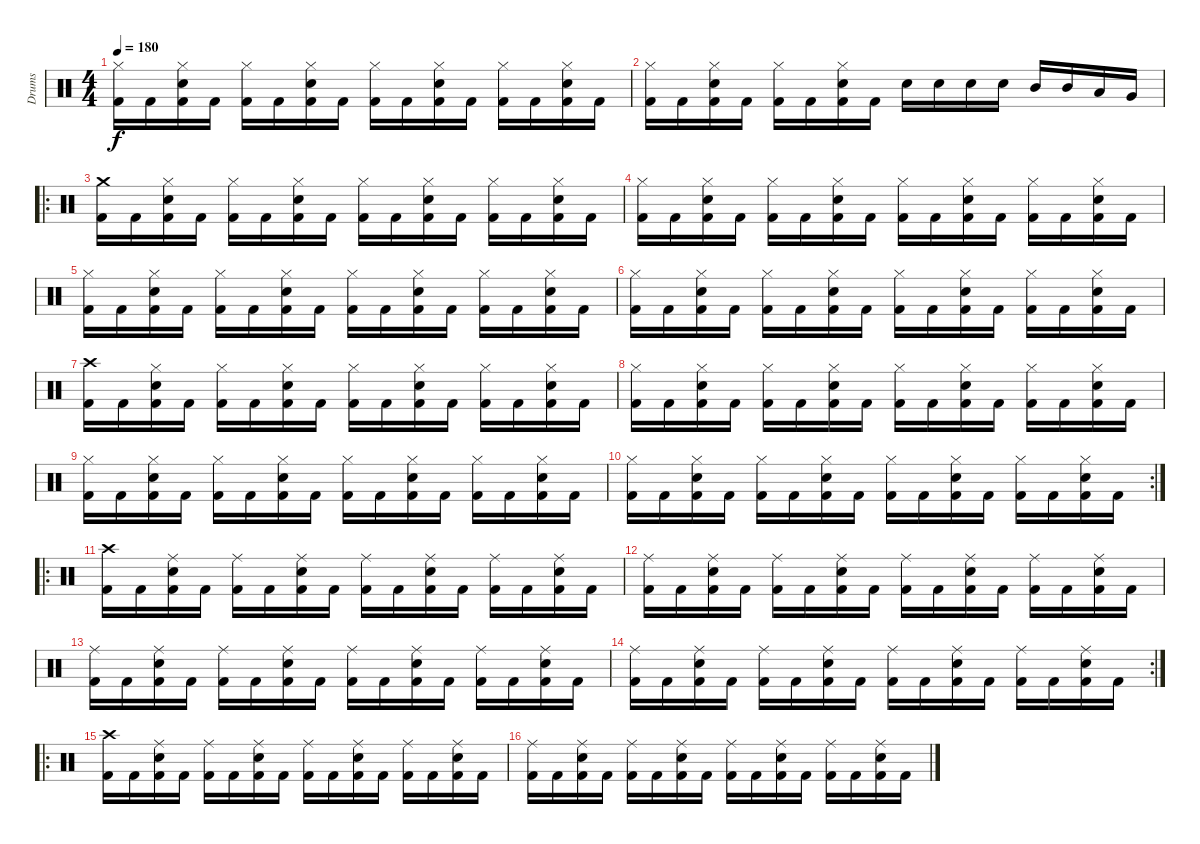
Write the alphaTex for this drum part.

\track ("Drums" "Drums") {instrument percussion}
\staff {score}
\articulation defaults
\ts (4 4)
\tempo 180
\clef neutral
\ks c
("Kick (hit) 2" "Hi-Hat (closed)").16{dy f} "Kick (hit) 2".16 ("Kick (hit) 2" "Hi-Hat (closed)" "Snare (hit) 2").16 "Kick (hit) 2".16 ("Kick (hit) 2" "Hi-Hat (closed)").16 "Kick (hit) 2".16 ("Kick (hit) 2" "Hi-Hat (closed)" "Snare (hit) 2").16 "Kick (hit) 2".16 ("Kick (hit) 2" "Hi-Hat (closed)").16 "Kick (hit) 2".16 ("Kick (hit) 2" "Hi-Hat (closed)" "Snare (hit) 2").16 "Kick (hit) 2".16 ("Kick (hit) 2" "Hi-Hat (closed)").16 "Kick (hit) 2".16 ("Kick (hit) 2" "Hi-Hat (closed)" "Snare (hit) 2").16 "Kick (hit) 2".16 |
("Kick (hit) 2" "Hi-Hat (closed)").16 "Kick (hit) 2".16 ("Kick (hit) 2" "Hi-Hat (closed)" "Snare (hit) 2").16 "Kick (hit) 2".16 ("Kick (hit) 2" "Hi-Hat (closed)").16 "Kick (hit) 2".16 ("Kick (hit) 2" "Hi-Hat (closed)" "Snare (hit) 2").16 "Kick (hit) 2".16 "Snare (hit) 2".16 "Snare (hit) 2".16 "Snare (hit) 2".16 "Snare (hit) 2".16 "Mid Tom (hit)".16 "Mid Tom (hit)".16 "Low Tom (hit)".16 "Very Low Tom (hit)".16 |
\ro
("Kick (hit) 2" "Crash medium (hit)").16 "Kick (hit) 2".16 ("Kick (hit) 2" "Hi-Hat (closed)" "Snare (hit) 2").16 "Kick (hit) 2".16 ("Kick (hit) 2" "Hi-Hat (closed)").16 "Kick (hit) 2".16 ("Kick (hit) 2" "Hi-Hat (closed)" "Snare (hit) 2").16 "Kick (hit) 2".16 ("Kick (hit) 2" "Hi-Hat (closed)").16 "Kick (hit) 2".16 ("Kick (hit) 2" "Hi-Hat (closed)" "Snare (hit) 2").16 "Kick (hit) 2".16 ("Kick (hit) 2" "Hi-Hat (closed)").16 "Kick (hit) 2".16 ("Kick (hit) 2" "Hi-Hat (closed)" "Snare (hit) 2").16 "Kick (hit) 2".16 |
("Kick (hit) 2" "Hi-Hat (closed)").16 "Kick (hit) 2".16 ("Kick (hit) 2" "Hi-Hat (closed)" "Snare (hit) 2").16 "Kick (hit) 2".16 ("Kick (hit) 2" "Hi-Hat (closed)").16 "Kick (hit) 2".16 ("Kick (hit) 2" "Hi-Hat (closed)" "Snare (hit) 2").16 "Kick (hit) 2".16 ("Kick (hit) 2" "Hi-Hat (closed)").16 "Kick (hit) 2".16 ("Kick (hit) 2" "Hi-Hat (closed)" "Snare (hit) 2").16 "Kick (hit) 2".16 ("Kick (hit) 2" "Hi-Hat (closed)").16 "Kick (hit) 2".16 ("Kick (hit) 2" "Hi-Hat (closed)" "Snare (hit) 2").16 "Kick (hit) 2".16 |
("Kick (hit) 2" "Hi-Hat (closed)").16 "Kick (hit) 2".16 ("Kick (hit) 2" "Hi-Hat (closed)" "Snare (hit) 2").16 "Kick (hit) 2".16 ("Kick (hit) 2" "Hi-Hat (closed)").16 "Kick (hit) 2".16 ("Kick (hit) 2" "Hi-Hat (closed)" "Snare (hit) 2").16 "Kick (hit) 2".16 ("Kick (hit) 2" "Hi-Hat (closed)").16 "Kick (hit) 2".16 ("Kick (hit) 2" "Hi-Hat (closed)" "Snare (hit) 2").16 "Kick (hit) 2".16 ("Kick (hit) 2" "Hi-Hat (closed)").16 "Kick (hit) 2".16 ("Kick (hit) 2" "Hi-Hat (closed)" "Snare (hit) 2").16 "Kick (hit) 2".16 |
("Kick (hit) 2" "Hi-Hat (closed)").16 "Kick (hit) 2".16 ("Kick (hit) 2" "Hi-Hat (closed)" "Snare (hit) 2").16 "Kick (hit) 2".16 ("Kick (hit) 2" "Hi-Hat (closed)").16 "Kick (hit) 2".16 ("Kick (hit) 2" "Hi-Hat (closed)" "Snare (hit) 2").16 "Kick (hit) 2".16 ("Kick (hit) 2" "Hi-Hat (closed)").16 "Kick (hit) 2".16 ("Kick (hit) 2" "Hi-Hat (closed)" "Snare (hit) 2").16 "Kick (hit) 2".16 ("Kick (hit) 2" "Hi-Hat (closed)").16 "Kick (hit) 2".16 ("Kick (hit) 2" "Hi-Hat (closed)" "Snare (hit) 2").16 "Kick (hit) 2".16 |
("Kick (hit) 2" "Crash high (hit)").16 "Kick (hit) 2".16 ("Kick (hit) 2" "Hi-Hat (closed)" "Snare (hit) 2").16 "Kick (hit) 2".16 ("Kick (hit) 2" "Hi-Hat (closed)").16 "Kick (hit) 2".16 ("Kick (hit) 2" "Hi-Hat (closed)" "Snare (hit) 2").16 "Kick (hit) 2".16 ("Kick (hit) 2" "Hi-Hat (closed)").16 "Kick (hit) 2".16 ("Kick (hit) 2" "Hi-Hat (closed)" "Snare (hit) 2").16 "Kick (hit) 2".16 ("Kick (hit) 2" "Hi-Hat (closed)").16 "Kick (hit) 2".16 ("Kick (hit) 2" "Hi-Hat (closed)" "Snare (hit) 2").16 "Kick (hit) 2".16 |
("Kick (hit) 2" "Hi-Hat (closed)").16 "Kick (hit) 2".16 ("Kick (hit) 2" "Hi-Hat (closed)" "Snare (hit) 2").16 "Kick (hit) 2".16 ("Kick (hit) 2" "Hi-Hat (closed)").16 "Kick (hit) 2".16 ("Kick (hit) 2" "Hi-Hat (closed)" "Snare (hit) 2").16 "Kick (hit) 2".16 ("Kick (hit) 2" "Hi-Hat (closed)").16 "Kick (hit) 2".16 ("Kick (hit) 2" "Hi-Hat (closed)" "Snare (hit) 2").16 "Kick (hit) 2".16 ("Kick (hit) 2" "Hi-Hat (closed)").16 "Kick (hit) 2".16 ("Kick (hit) 2" "Hi-Hat (closed)" "Snare (hit) 2").16 "Kick (hit) 2".16 |
("Kick (hit) 2" "Hi-Hat (closed)").16 "Kick (hit) 2".16 ("Kick (hit) 2" "Hi-Hat (closed)" "Snare (hit) 2").16 "Kick (hit) 2".16 ("Kick (hit) 2" "Hi-Hat (closed)").16 "Kick (hit) 2".16 ("Kick (hit) 2" "Hi-Hat (closed)" "Snare (hit) 2").16 "Kick (hit) 2".16 ("Kick (hit) 2" "Hi-Hat (closed)").16 "Kick (hit) 2".16 ("Kick (hit) 2" "Hi-Hat (closed)" "Snare (hit) 2").16 "Kick (hit) 2".16 ("Kick (hit) 2" "Hi-Hat (closed)").16 "Kick (hit) 2".16 ("Kick (hit) 2" "Hi-Hat (closed)" "Snare (hit) 2").16 "Kick (hit) 2".16 |
\rc 2
("Kick (hit) 2" "Hi-Hat (closed)").16 "Kick (hit) 2".16 ("Kick (hit) 2" "Hi-Hat (closed)" "Snare (hit) 2").16 "Kick (hit) 2".16 ("Kick (hit) 2" "Hi-Hat (closed)").16 "Kick (hit) 2".16 ("Kick (hit) 2" "Hi-Hat (closed)" "Snare (hit) 2").16 "Kick (hit) 2".16 ("Kick (hit) 2" "Hi-Hat (closed)").16 "Kick (hit) 2".16 ("Kick (hit) 2" "Hi-Hat (closed)" "Snare (hit) 2").16 "Kick (hit) 2".16 ("Kick (hit) 2" "Hi-Hat (closed)").16 "Kick (hit) 2".16 ("Kick (hit) 2" "Hi-Hat (closed)" "Snare (hit) 2").16 "Kick (hit) 2".16 |
\ro
("Kick (hit) 2" "Crash high (hit)").16 "Kick (hit) 2".16 ("Kick (hit) 2" "Ride (middle)" "Snare (hit) 2").16 "Kick (hit) 2".16 ("Kick (hit) 2" "Ride (middle)").16 "Kick (hit) 2".16 ("Kick (hit) 2" "Ride (middle)" "Snare (hit) 2").16 "Kick (hit) 2".16 ("Kick (hit) 2" "Ride (middle)").16 "Kick (hit) 2".16 ("Kick (hit) 2" "Ride (middle)" "Snare (hit) 2").16 "Kick (hit) 2".16 ("Kick (hit) 2" "Ride (middle)").16 "Kick (hit) 2".16 ("Kick (hit) 2" "Ride (middle)" "Snare (hit) 2").16 "Kick (hit) 2".16 |
("Kick (hit) 2" "Ride (middle)").16 "Kick (hit) 2".16 ("Kick (hit) 2" "Ride (middle)" "Snare (hit) 2").16 "Kick (hit) 2".16 ("Kick (hit) 2" "Ride (middle)").16 "Kick (hit) 2".16 ("Kick (hit) 2" "Ride (middle)" "Snare (hit) 2").16 "Kick (hit) 2".16 ("Kick (hit) 2" "Ride (middle)").16 "Kick (hit) 2".16 ("Kick (hit) 2" "Ride (middle)" "Snare (hit) 2").16 "Kick (hit) 2".16 ("Kick (hit) 2" "Ride (middle)").16 "Kick (hit) 2".16 ("Kick (hit) 2" "Ride (middle)" "Snare (hit) 2").16 "Kick (hit) 2".16 |
("Kick (hit) 2" "Ride (middle)").16 "Kick (hit) 2".16 ("Kick (hit) 2" "Ride (middle)" "Snare (hit) 2").16 "Kick (hit) 2".16 ("Kick (hit) 2" "Ride (middle)").16 "Kick (hit) 2".16 ("Kick (hit) 2" "Ride (middle)" "Snare (hit) 2").16 "Kick (hit) 2".16 ("Kick (hit) 2" "Ride (middle)").16 "Kick (hit) 2".16 ("Kick (hit) 2" "Ride (middle)" "Snare (hit) 2").16 "Kick (hit) 2".16 ("Kick (hit) 2" "Ride (middle)").16 "Kick (hit) 2".16 ("Kick (hit) 2" "Ride (middle)" "Snare (hit) 2").16 "Kick (hit) 2".16 |
\rc 2
("Kick (hit) 2" "Ride (middle)").16 "Kick (hit) 2".16 ("Kick (hit) 2" "Ride (middle)" "Snare (hit) 2").16 "Kick (hit) 2".16 ("Kick (hit) 2" "Ride (middle)").16 "Kick (hit) 2".16 ("Kick (hit) 2" "Ride (middle)" "Snare (hit) 2").16 "Kick (hit) 2".16 ("Kick (hit) 2" "Ride (middle)").16 "Kick (hit) 2".16 ("Kick (hit) 2" "Ride (middle)" "Snare (hit) 2").16 "Kick (hit) 2".16 ("Kick (hit) 2" "Ride (middle)").16 "Kick (hit) 2".16 ("Kick (hit) 2" "Ride (middle)" "Snare (hit) 2").16 "Kick (hit) 2".16 |
\ro
("Kick (hit) 2" "Crash high (hit)").16 "Kick (hit) 2".16 ("Kick (hit) 2" "Ride (middle)" "Snare (hit) 2").16 "Kick (hit) 2".16 ("Kick (hit) 2" "Ride (middle)").16 "Kick (hit) 2".16 ("Kick (hit) 2" "Ride (middle)" "Snare (hit) 2").16 "Kick (hit) 2".16 ("Kick (hit) 2" "Ride (middle)").16 "Kick (hit) 2".16 ("Kick (hit) 2" "Ride (middle)" "Snare (hit) 2").16 "Kick (hit) 2".16 ("Kick (hit) 2" "Ride (middle)").16 "Kick (hit) 2".16 ("Kick (hit) 2" "Ride (middle)" "Snare (hit) 2").16 "Kick (hit) 2".16 |
("Kick (hit) 2" "Ride (middle)").16 "Kick (hit) 2".16 ("Kick (hit) 2" "Ride (middle)" "Snare (hit) 2").16 "Kick (hit) 2".16 ("Kick (hit) 2" "Ride (middle)").16 "Kick (hit) 2".16 ("Kick (hit) 2" "Ride (middle)" "Snare (hit) 2").16 "Kick (hit) 2".16 ("Kick (hit) 2" "Ride (middle)").16 "Kick (hit) 2".16 ("Kick (hit) 2" "Ride (middle)" "Snare (hit) 2").16 "Kick (hit) 2".16 ("Kick (hit) 2" "Ride (middle)").16 "Kick (hit) 2".16 ("Kick (hit) 2" "Ride (middle)" "Snare (hit) 2").16 "Kick (hit) 2".16
